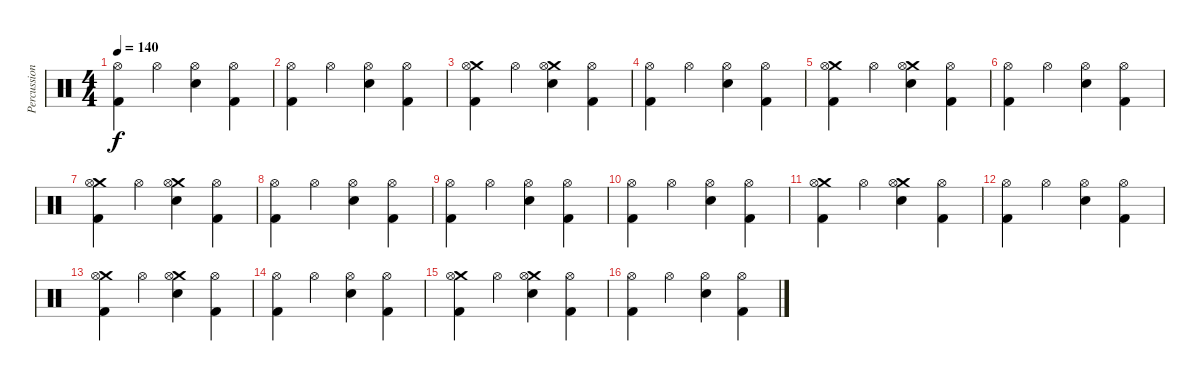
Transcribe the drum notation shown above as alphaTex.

\track ("Percussion" "Percussion") {instrument percussion}
\staff {score}
\articulation defaults
\ts (4 4)
\tempo 140
\clef neutral
\ks c
("Hi-Hat (open)" "Kick (hit) 2").4{dy f} "Hi-Hat (open)".4 ("Hi-Hat (open)" "Snare (hit) 2").4 ("Hi-Hat (open)" "Kick (hit) 2").4 |
("Hi-Hat (open)" "Kick (hit) 2").4 "Hi-Hat (open)".4 ("Hi-Hat (open)" "Snare (hit) 2").4 ("Hi-Hat (open)" "Kick (hit) 2").4 |
("Crash medium (hit)" "Hi-Hat (open)" "Kick (hit) 2").4 "Hi-Hat (open)".4 ("Crash medium (hit)" "Hi-Hat (open)" "Snare (hit) 2").4 ("Hi-Hat (open)" "Kick (hit) 2").4 |
("Hi-Hat (open)" "Kick (hit) 2").4 "Hi-Hat (open)".4 ("Hi-Hat (open)" "Snare (hit) 2").4 ("Hi-Hat (open)" "Kick (hit) 2").4 |
("Crash medium (hit)" "Hi-Hat (open)" "Kick (hit) 2").4 "Hi-Hat (open)".4 ("Crash medium (hit)" "Hi-Hat (open)" "Snare (hit) 2").4 ("Hi-Hat (open)" "Kick (hit) 2").4 |
("Hi-Hat (open)" "Kick (hit) 2").4 "Hi-Hat (open)".4 ("Hi-Hat (open)" "Snare (hit) 2").4 ("Hi-Hat (open)" "Kick (hit) 2").4 |
("Crash medium (hit)" "Hi-Hat (open)" "Kick (hit) 2").4 "Hi-Hat (open)".4 ("Crash medium (hit)" "Hi-Hat (open)" "Snare (hit) 2").4 ("Hi-Hat (open)" "Kick (hit) 2").4 |
("Hi-Hat (open)" "Kick (hit) 2").4 "Hi-Hat (open)".4 ("Hi-Hat (open)" "Snare (hit) 2").4 ("Hi-Hat (open)" "Kick (hit) 2").4 |
("Hi-Hat (open)" "Kick (hit) 2").4 "Hi-Hat (open)".4 ("Hi-Hat (open)" "Snare (hit) 2").4 ("Hi-Hat (open)" "Kick (hit) 2").4 |
("Hi-Hat (open)" "Kick (hit) 2").4 "Hi-Hat (open)".4 ("Hi-Hat (open)" "Snare (hit) 2").4 ("Hi-Hat (open)" "Kick (hit) 2").4 |
("Crash medium (hit)" "Hi-Hat (open)" "Kick (hit) 2").4 "Hi-Hat (open)".4 ("Crash medium (hit)" "Hi-Hat (open)" "Snare (hit) 2").4 ("Hi-Hat (open)" "Kick (hit) 2").4 |
("Hi-Hat (open)" "Kick (hit) 2").4 "Hi-Hat (open)".4 ("Hi-Hat (open)" "Snare (hit) 2").4 ("Hi-Hat (open)" "Kick (hit) 2").4 |
("Crash medium (hit)" "Hi-Hat (open)" "Kick (hit) 2").4 "Hi-Hat (open)".4 ("Crash medium (hit)" "Hi-Hat (open)" "Snare (hit) 2").4 ("Hi-Hat (open)" "Kick (hit) 2").4 |
("Hi-Hat (open)" "Kick (hit) 2").4 "Hi-Hat (open)".4 ("Hi-Hat (open)" "Snare (hit) 2").4 ("Hi-Hat (open)" "Kick (hit) 2").4 |
("Crash medium (hit)" "Hi-Hat (open)" "Kick (hit) 2").4 "Hi-Hat (open)".4 ("Crash medium (hit)" "Hi-Hat (open)" "Snare (hit) 2").4 ("Hi-Hat (open)" "Kick (hit) 2").4 |
("Hi-Hat (open)" "Kick (hit) 2").4 "Hi-Hat (open)".4 ("Hi-Hat (open)" "Snare (hit) 2").4 ("Hi-Hat (open)" "Kick (hit) 2").4
